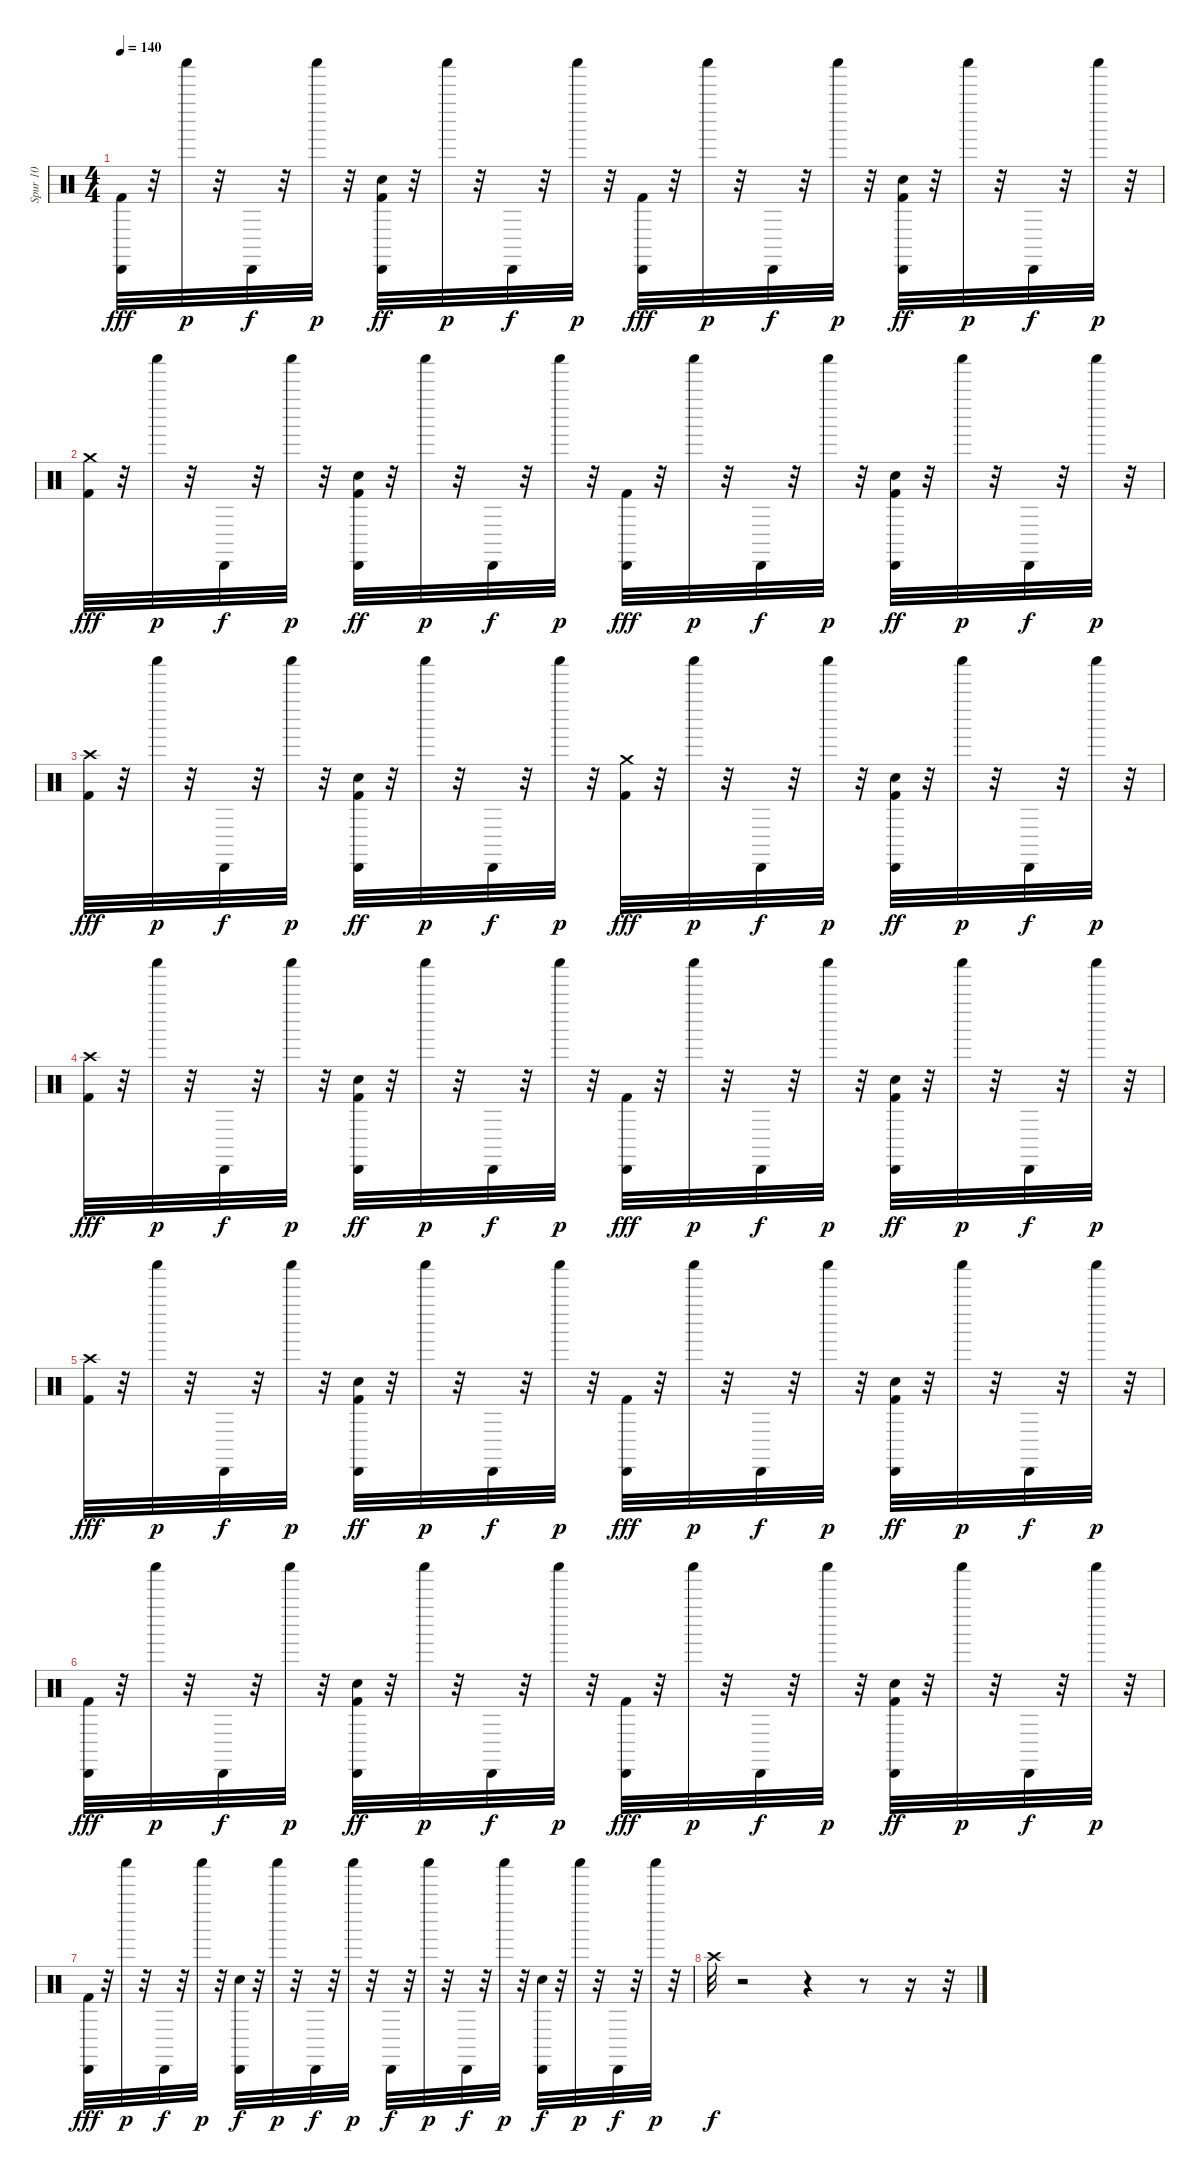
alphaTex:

\track ("Spur 10" "Spur 10") {instrument percussion}
\staff {score}
\articulation defaults
\ts (4 4)
\tempo 140
\clef neutral
\ks c
("Cabasa (hit)" "Kick (hit) 2").32{dy fff} r.32 "Shaker (hit)".32{dy p} r.32 "Cabasa (hit)".32{dy f} r.32 "Shaker (hit)".32{dy p} r.32 ("Snare (hit) 2" "Cabasa (hit)" "Kick (hit) 2").32{dy ff} r.32 "Shaker (hit)".32{dy p} r.32 "Cabasa (hit)".32{dy f} r.32 "Shaker (hit)".32{dy p} r.32 ("Cabasa (hit)" "Kick (hit) 2").32{dy fff} r.32 "Shaker (hit)".32{dy p} r.32 "Cabasa (hit)".32{dy f} r.32 "Shaker (hit)".32{dy p} r.32 ("Snare (hit) 2" "Cabasa (hit)" "Kick (hit) 2").32{dy ff} r.32 "Shaker (hit)".32{dy p} r.32 "Cabasa (hit)".32{dy f} r.32 "Shaker (hit)".32{dy p} r.32 |
("Crash medium (hit)" "Kick (hit) 2").32{dy fff} r.32 "Shaker (hit)".32{dy p} r.32 "Cabasa (hit)".32{dy f} r.32 "Shaker (hit)".32{dy p} r.32 ("Snare (hit) 2" "Cabasa (hit)" "Kick (hit) 2").32{dy ff} r.32 "Shaker (hit)".32{dy p} r.32 "Cabasa (hit)".32{dy f} r.32 "Shaker (hit)".32{dy p} r.32 ("Cabasa (hit)" "Kick (hit) 2").32{dy fff} r.32 "Shaker (hit)".32{dy p} r.32 "Cabasa (hit)".32{dy f} r.32 "Shaker (hit)".32{dy p} r.32 ("Snare (hit) 2" "Cabasa (hit)" "Kick (hit) 2").32{dy ff} r.32 "Shaker (hit)".32{dy p} r.32 "Cabasa (hit)".32{dy f} r.32 "Shaker (hit)".32{dy p} r.32 |
("Crash high (hit)" "Kick (hit) 2").32{dy fff} r.32 "Shaker (hit)".32{dy p} r.32 "Cabasa (hit)".32{dy f} r.32 "Shaker (hit)".32{dy p} r.32 ("Snare (hit) 2" "Cabasa (hit)" "Kick (hit) 2").32{dy ff} r.32 "Shaker (hit)".32{dy p} r.32 "Cabasa (hit)".32{dy f} r.32 "Shaker (hit)".32{dy p} r.32 ("Crash medium (hit)" "Kick (hit) 2").32{dy fff} r.32 "Shaker (hit)".32{dy p} r.32 "Cabasa (hit)".32{dy f} r.32 "Shaker (hit)".32{dy p} r.32 ("Snare (hit) 2" "Cabasa (hit)" "Kick (hit) 2").32{dy ff} r.32 "Shaker (hit)".32{dy p} r.32 "Cabasa (hit)".32{dy f} r.32 "Shaker (hit)".32{dy p} r.32 |
("Crash high (hit)" "Kick (hit) 2").32{dy fff} r.32 "Shaker (hit)".32{dy p} r.32 "Cabasa (hit)".32{dy f} r.32 "Shaker (hit)".32{dy p} r.32 ("Snare (hit) 2" "Cabasa (hit)" "Kick (hit) 2").32{dy ff} r.32 "Shaker (hit)".32{dy p} r.32 "Cabasa (hit)".32{dy f} r.32 "Shaker (hit)".32{dy p} r.32 ("Cabasa (hit)" "Kick (hit) 2").32{dy fff} r.32 "Shaker (hit)".32{dy p} r.32 "Cabasa (hit)".32{dy f} r.32 "Shaker (hit)".32{dy p} r.32 ("Snare (hit) 2" "Cabasa (hit)" "Kick (hit) 2").32{dy ff} r.32 "Shaker (hit)".32{dy p} r.32 "Cabasa (hit)".32{dy f} r.32 "Shaker (hit)".32{dy p} r.32 |
("Crash high (hit)" "Kick (hit) 2").32{dy fff} r.32 "Shaker (hit)".32{dy p} r.32 "Cabasa (hit)".32{dy f} r.32 "Shaker (hit)".32{dy p} r.32 ("Snare (hit) 2" "Cabasa (hit)" "Kick (hit) 2").32{dy ff} r.32 "Shaker (hit)".32{dy p} r.32 "Cabasa (hit)".32{dy f} r.32 "Shaker (hit)".32{dy p} r.32 ("Cabasa (hit)" "Kick (hit) 2").32{dy fff} r.32 "Shaker (hit)".32{dy p} r.32 "Cabasa (hit)".32{dy f} r.32 "Shaker (hit)".32{dy p} r.32 ("Snare (hit) 2" "Cabasa (hit)" "Kick (hit) 2").32{dy ff} r.32 "Shaker (hit)".32{dy p} r.32 "Cabasa (hit)".32{dy f} r.32 "Shaker (hit)".32{dy p} r.32 |
("Cabasa (hit)" "Kick (hit) 2").32{dy fff} r.32 "Shaker (hit)".32{dy p} r.32 "Cabasa (hit)".32{dy f} r.32 "Shaker (hit)".32{dy p} r.32 ("Snare (hit) 2" "Cabasa (hit)" "Kick (hit) 2").32{dy ff} r.32 "Shaker (hit)".32{dy p} r.32 "Cabasa (hit)".32{dy f} r.32 "Shaker (hit)".32{dy p} r.32 ("Cabasa (hit)" "Kick (hit) 2").32{dy fff} r.32 "Shaker (hit)".32{dy p} r.32 "Cabasa (hit)".32{dy f} r.32 "Shaker (hit)".32{dy p} r.32 ("Snare (hit) 2" "Cabasa (hit)" "Kick (hit) 2").32{dy ff} r.32 "Shaker (hit)".32{dy p} r.32 "Cabasa (hit)".32{dy f} r.32 "Shaker (hit)".32{dy p} r.32 |
("Cabasa (hit)" "Kick (hit) 2").32{dy fff} r.32 "Shaker (hit)".32{dy p} r.32 "Cabasa (hit)".32{dy f} r.32 "Shaker (hit)".32{dy p} r.32 ("Snare (hit) 2" "Cabasa (hit)").32{dy f} r.32 "Shaker (hit)".32{dy p} r.32 "Cabasa (hit)".32{dy f} r.32 "Shaker (hit)".32{dy p} r.32 "Cabasa (hit)".32{dy f} r.32 "Shaker (hit)".32{dy p} r.32 "Cabasa (hit)".32{dy f} r.32 "Shaker (hit)".32{dy p} r.32 ("Snare (hit) 2" "Cabasa (hit)").32{dy f} r.32 "Shaker (hit)".32{dy p} r.32 "Cabasa (hit)".32{dy f} r.32 "Shaker (hit)".32{dy p} r.32 |
"Crash high (hit)".32{dy f} r.2 r.4 r.8 r.16 r.32
